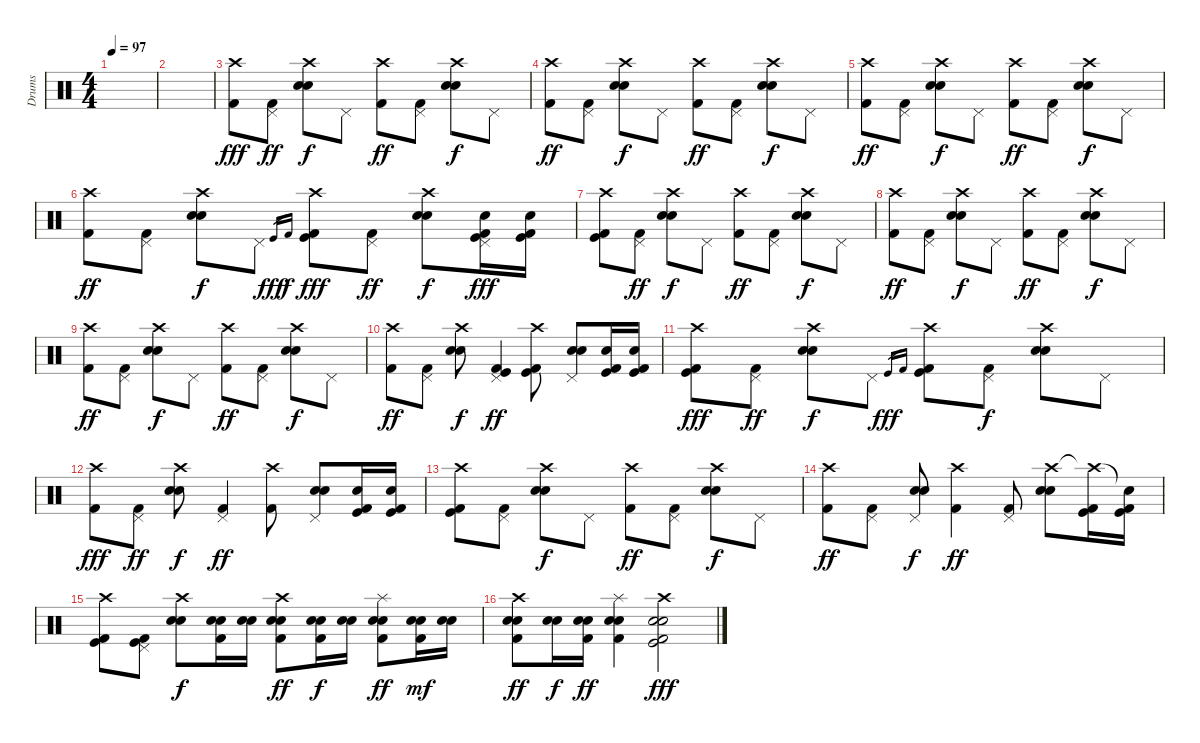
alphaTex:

\track ("Drums         Brian Young" "Drums     ") {instrument percussion}
\staff {score}
\articulation defaults
\ts (4 4)
\tempo 97
\clef neutral
\ks c
|
|
("Crash high (hit)" "Kick (hit) 2").8{dy fff} ("Pedal Hi-Hat (hit)" "Kick (hit) 2").8{dy ff} ("Crash high (hit)" "Electric Snare (hit)" "Snare (hit) 2").8{dy f} "Pedal Hi-Hat (hit)".8 ("Crash high (hit)" "Kick (hit) 2").8{dy ff} ("Pedal Hi-Hat (hit)" "Kick (hit) 2").8 ("Crash high (hit)" "Electric Snare (hit)" "Snare (hit) 2").8{dy f} "Pedal Hi-Hat (hit)".8 |
("Crash high (hit)" "Kick (hit) 2").8{dy ff} ("Pedal Hi-Hat (hit)" "Kick (hit) 2").8 ("Crash high (hit)" "Electric Snare (hit)" "Snare (hit) 2").8{dy f} "Pedal Hi-Hat (hit)".8 ("Crash high (hit)" "Kick (hit) 2").8{dy ff} ("Pedal Hi-Hat (hit)" "Kick (hit) 2").8 ("Crash high (hit)" "Electric Snare (hit)" "Snare (hit) 2").8{dy f} "Pedal Hi-Hat (hit)".8 |
("Crash high (hit)" "Kick (hit) 2").8{dy ff} ("Pedal Hi-Hat (hit)" "Kick (hit) 2").8 ("Crash high (hit)" "Electric Snare (hit)" "Snare (hit) 2").8{dy f} "Pedal Hi-Hat (hit)".8 ("Crash high (hit)" "Kick (hit) 2").8{dy ff} ("Pedal Hi-Hat (hit)" "Kick (hit) 2").8 ("Crash high (hit)" "Electric Snare (hit)" "Snare (hit) 2").8{dy f} "Pedal Hi-Hat (hit)".8 |
("Crash high (hit)" "Kick (hit) 2").8{dy ff} ("Pedal Hi-Hat (hit)" "Kick (hit) 2").8 ("Crash high (hit)" "Electric Snare (hit)" "Snare (hit) 2").8{dy f} "Pedal Hi-Hat (hit)".8 "Kick (hit)".16{gr dy fff} "Kick (hit) 2".16{gr dy f} ("Crash high (hit)" "Kick (hit)" "Kick (hit) 2").8{dy fff} ("Pedal Hi-Hat (hit)" "Kick (hit) 2").8{dy ff} ("Crash high (hit)" "Electric Snare (hit)" "Snare (hit) 2").8{dy f} ("Pedal Hi-Hat (hit)" "Snare (hit) 2" "Kick (hit)" "Kick (hit) 2").16{dy fff} ("Snare (hit) 2" "Kick (hit)" "Kick (hit) 2").16 |
("Crash high (hit)" "Kick (hit)" "Kick (hit) 2").8 ("Pedal Hi-Hat (hit)" "Kick (hit) 2").8{dy ff} ("Crash high (hit)" "Electric Snare (hit)" "Snare (hit) 2").8{dy f} "Pedal Hi-Hat (hit)".8 ("Crash high (hit)" "Kick (hit) 2").8{dy ff} ("Pedal Hi-Hat (hit)" "Kick (hit) 2").8 ("Crash high (hit)" "Electric Snare (hit)" "Snare (hit) 2").8{dy f} "Pedal Hi-Hat (hit)".8 |
("Crash high (hit)" "Kick (hit) 2").8{dy ff} ("Pedal Hi-Hat (hit)" "Kick (hit) 2").8 ("Crash high (hit)" "Electric Snare (hit)" "Snare (hit) 2").8{dy f} "Pedal Hi-Hat (hit)".8 ("Crash high (hit)" "Kick (hit) 2").8{dy ff} ("Pedal Hi-Hat (hit)" "Kick (hit) 2").8 ("Crash high (hit)" "Electric Snare (hit)" "Snare (hit) 2").8{dy f} "Pedal Hi-Hat (hit)".8 |
("Crash high (hit)" "Kick (hit) 2").8{dy ff} ("Pedal Hi-Hat (hit)" "Kick (hit) 2").8 ("Crash high (hit)" "Electric Snare (hit)" "Snare (hit) 2").8{dy f} "Pedal Hi-Hat (hit)".8 ("Crash high (hit)" "Kick (hit) 2").8{dy ff} ("Pedal Hi-Hat (hit)" "Kick (hit) 2").8 ("Crash high (hit)" "Electric Snare (hit)" "Snare (hit) 2").8{dy f} "Pedal Hi-Hat (hit)".8 |
("Crash high (hit)" "Kick (hit) 2").8{dy ff} ("Pedal Hi-Hat (hit)" "Kick (hit) 2").8 ("Crash high (hit)" "Electric Snare (hit)" "Snare (hit) 2").8{dy f} ("Pedal Hi-Hat (hit)" "Kick (hit)" "Kick (hit) 2").4{dy ff} ("Crash high (hit)" "Kick (hit)" "Kick (hit) 2").8 ("Pedal Hi-Hat (hit)" "Electric Snare (hit)" "Snare (hit) 2").8 ("Snare (hit) 2" "Kick (hit)" "Kick (hit) 2").16 ("Snare (hit) 2" "Kick (hit)" "Kick (hit) 2").16 |
("Crash high (hit)" "Kick (hit)" "Kick (hit) 2").8{dy fff} ("Pedal Hi-Hat (hit)" "Kick (hit) 2").8{dy ff} ("Crash high (hit)" "Electric Snare (hit)" "Snare (hit) 2").8{dy f} "Pedal Hi-Hat (hit)".8 "Kick (hit)".16{gr dy fff} "Kick (hit) 2".16{gr} ("Crash high (hit)" "Kick (hit)" "Kick (hit) 2").8 ("Pedal Hi-Hat (hit)" "Kick (hit) 2").8{dy f} ("Crash high (hit)" "Electric Snare (hit)" "Snare (hit) 2").8 "Pedal Hi-Hat (hit)".8 |
("Crash high (hit)" "Kick (hit) 2").8{dy fff} ("Pedal Hi-Hat (hit)" "Kick (hit) 2").8{dy ff} ("Crash high (hit)" "Electric Snare (hit)" "Snare (hit) 2").8{dy f} ("Pedal Hi-Hat (hit)" "Kick (hit) 2").4{dy ff} ("Crash high (hit)" "Kick (hit) 2").8 ("Pedal Hi-Hat (hit)" "Electric Snare (hit)" "Snare (hit) 2").8 ("Snare (hit) 2" "Kick (hit)" "Kick (hit) 2").16 ("Snare (hit) 2" "Kick (hit)" "Kick (hit) 2").16 |
("Crash high (hit)" "Kick (hit)" "Kick (hit) 2").8 ("Pedal Hi-Hat (hit)" "Kick (hit) 2").8 ("Crash high (hit)" "Electric Snare (hit)" "Snare (hit) 2").8{dy f} "Pedal Hi-Hat (hit)".8 ("Crash high (hit)" "Kick (hit) 2").8{dy ff} ("Pedal Hi-Hat (hit)" "Kick (hit) 2").8 ("Crash high (hit)" "Electric Snare (hit)" "Snare (hit) 2").8{dy f} "Pedal Hi-Hat (hit)".8 |
("Crash high (hit)" "Kick (hit) 2").8{dy ff} ("Pedal Hi-Hat (hit)" "Kick (hit) 2").8 ("Pedal Hi-Hat (hit)" "Electric Snare (hit)" "Snare (hit) 2").8{dy f} ("Crash high (hit)" "Kick (hit) 2").4{dy ff} ("Pedal Hi-Hat (hit)" "Kick (hit) 2").8 ("Crash high (hit)" "Electric Snare (hit)" "Snare (hit) 2").8 ("Crash high (hit)"{t} "Kick (hit)" "Kick (hit) 2").16 ("Snare (hit)"{t} "Kick (hit)" "Kick (hit) 2").16 |
("Crash high (hit)" "Kick (hit)" "Kick (hit) 2").8 ("Pedal Hi-Hat (hit)" "Kick (hit)" "Kick (hit) 2").8 ("Crash high (hit)" "Electric Snare (hit)" "Snare (hit) 2").8{dy f} ("Electric Snare (hit)" "Snare (hit) 2" "Kick (hit) 2").16 ("Electric Snare (hit)" "Snare (hit) 2").16 ("Crash high (hit)" "Electric Snare (hit)" "Snare (hit) 2" "Kick (hit) 2").8{dy ff} ("Electric Snare (hit)" "Snare (hit) 2" "Kick (hit) 2").16{dy f} ("Electric Snare (hit)" "Snare (hit) 2").16 ("Splash (hit)" "Electric Snare (hit)" "Snare (hit) 2" "Kick (hit) 2").8{dy ff} ("Electric Snare (hit)" "Snare (hit) 2" "Kick (hit) 2").16{dy mf} ("Electric Snare (hit)" "Snare (hit) 2").16 |
("Crash high (hit)" "Electric Snare (hit)" "Snare (hit) 2" "Kick (hit) 2").8{dy ff} ("Electric Snare (hit)" "Snare (hit) 2").16{dy f} ("Electric Snare (hit)" "Snare (hit) 2" "Kick (hit) 2").16{dy ff} ("Splash (hit)" "Electric Snare (hit)" "Snare (hit) 2" "Kick (hit) 2").4 ("Crash high (hit)" "Electric Snare (hit)" "Snare (hit) 2" "Kick (hit)" "Kick (hit) 2").2{dy fff}
